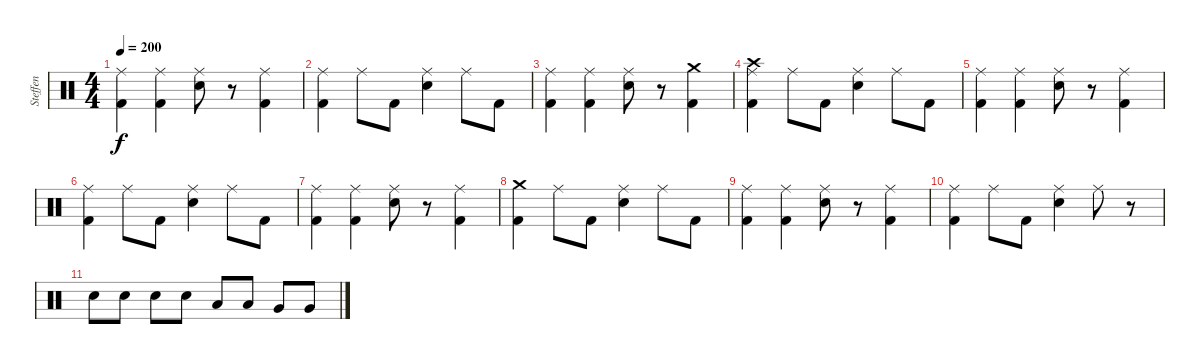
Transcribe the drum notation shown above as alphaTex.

\track ("Steffen" "Steffen") {instrument percussion}
\staff {score}
\articulation defaults
\ts (4 4)
\tempo 200
\clef neutral
\ks c
("Ride (middle)" "Kick (hit) 2").4{dy f} ("Ride (middle)" "Kick (hit) 2").4 ("Ride (middle)" "Electric Snare (hit)").8 r.8 ("Ride (middle)" "Kick (hit) 2").4 |
("Ride (middle)" "Kick (hit) 2").4 "Ride (middle)".8 "Kick (hit) 2".8 ("Ride (middle)" "Electric Snare (hit)").4 "Ride (middle)".8 "Kick (hit) 2".8 |
("Ride (middle)" "Kick (hit) 2").4 ("Ride (middle)" "Kick (hit) 2").4 ("Ride (middle)" "Electric Snare (hit)").8 r.8 ("Crash medium (hit)" "Kick (hit) 2").4 |
("Ride (middle)" "Crash high (hit)" "Kick (hit) 2").4 "Ride (middle)".8 "Kick (hit) 2".8 ("Ride (middle)" "Electric Snare (hit)").4 "Ride (middle)".8 "Kick (hit) 2".8 |
("Ride (middle)" "Kick (hit) 2").4 ("Ride (middle)" "Kick (hit) 2").4 ("Ride (middle)" "Electric Snare (hit)").8 r.8 ("Ride (middle)" "Kick (hit) 2").4 |
("Ride (middle)" "Kick (hit) 2").4 "Ride (middle)".8 "Kick (hit) 2".8 ("Ride (middle)" "Electric Snare (hit)").4 "Ride (middle)".8 "Kick (hit) 2".8 |
("Ride (middle)" "Kick (hit) 2").4 ("Ride (middle)" "Kick (hit) 2").4 ("Ride (middle)" "Electric Snare (hit)").8 r.8 ("Ride (middle)" "Kick (hit) 2").4 |
("Crash medium (hit)" "Kick (hit) 2").4 "Ride (middle)".8 "Kick (hit) 2".8 ("Ride (middle)" "Electric Snare (hit)").4 "Ride (middle)".8 "Kick (hit) 2".8 |
("Ride (middle)" "Kick (hit) 2").4 ("Ride (middle)" "Kick (hit) 2").4 ("Ride (middle)" "Electric Snare (hit)").8 r.8 ("Ride (middle)" "Kick (hit) 2").4 |
("Ride (middle)" "Kick (hit) 2").4 "Ride (middle)".8 "Kick (hit) 2".8 ("Ride (middle)" "Electric Snare (hit)").4 "Ride (middle)".8 r.8 |
"Electric Snare (hit)".8 "Electric Snare (hit)".8 "Electric Snare (hit)".8 "Electric Snare (hit)".8 "Low Tom (hit)".8 "Low Tom (hit)".8 "Very Low Tom (hit)".8 "Very Low Tom (hit)".8
